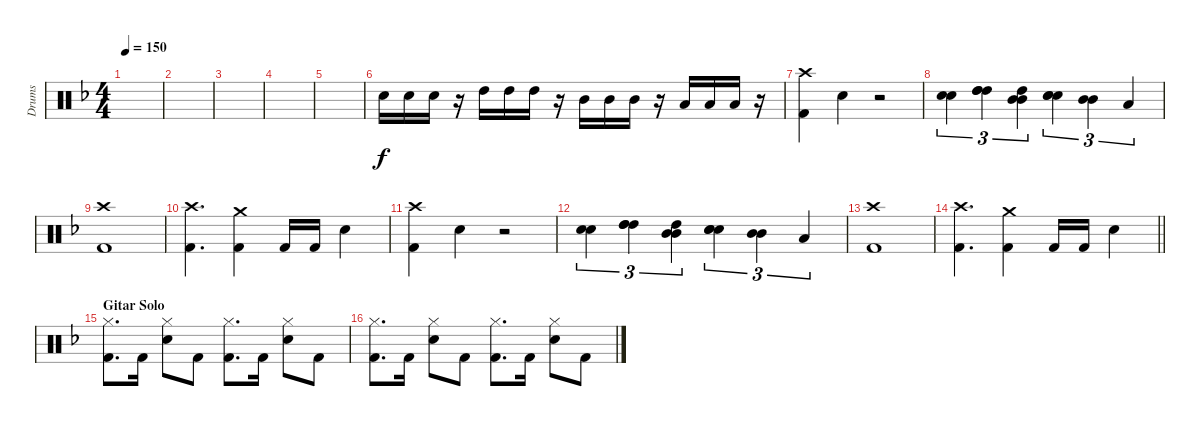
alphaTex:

\track ("Drums" "Drums") {instrument percussion}
\staff {score}
\articulation defaults
\ts (4 4)
\tempo 150
\clef neutral
\ks f
|
|
|
|
|
"Snare (hit) 2".16 "Snare (hit) 2".16 "Snare (hit) 2".16 r.16 "High Tom (hit)".16 "High Tom (hit)".16 "High Tom (hit)".16 r.16 "Mid Tom (hit)".16 "Mid Tom (hit)".16 "Mid Tom (hit)".16 r.16 "Low Tom (hit)".16 "Low Tom (hit)".16 "Low Tom (hit)".16 r.16 |
("Kick (hit) 2" "Crash high (hit)").4 "Snare (hit) 2".4 r.2 |
("Snare (hit) 2" "Snare (hit) 2").4{tu (3 2)} ("High Tom (hit)" "High Tom (hit)" "High Tom (hit)").4{tu (3 2)} ("High Tom (hit)" "Mid Tom (hit)" "Mid Tom (hit)").4{tu (3 2)} ("Snare (hit) 2" "Snare (hit) 2" "Snare (hit) 2").4{tu (3 2)} ("Mid Tom (hit)" "Mid Tom (hit)").4{tu (3 2)} "Low Tom (hit)".4{tu (3 2)} |
("Kick (hit) 2" "Crash high (hit)").1 |
("Kick (hit) 2" "Crash high (hit)").4{d} ("Kick (hit) 2" "Crash medium (hit)").4 "Kick (hit) 2".16 "Kick (hit) 2".16 "Snare (hit) 2".4 |
("Kick (hit) 2" "Crash high (hit)").4 "Snare (hit) 2".4 r.2 |
("Snare (hit) 2" "Snare (hit) 2").4{tu (3 2)} ("High Tom (hit)" "High Tom (hit)" "High Tom (hit)").4{tu (3 2)} ("High Tom (hit)" "Mid Tom (hit)" "Mid Tom (hit)").4{tu (3 2)} ("Snare (hit) 2" "Snare (hit) 2" "Snare (hit) 2").4{tu (3 2)} ("Mid Tom (hit)" "Mid Tom (hit)").4{tu (3 2)} "Low Tom (hit)".4{tu (3 2)} |
("Kick (hit) 2" "Crash high (hit)").1 |
\barLineRight lightlight
("Kick (hit) 2" "Crash high (hit)").4{d} ("Kick (hit) 2" "Crash medium (hit)").4 "Kick (hit) 2".16 "Kick (hit) 2".16 "Snare (hit) 2".4 |
\section ("" "Gitar Solo")
("Kick (hit) 2" "Hi-Hat (closed)").8{d} "Kick (hit) 2".16 ("Snare (hit) 2" "Hi-Hat (closed)").8 "Kick (hit) 2".8 ("Kick (hit) 2" "Hi-Hat (closed)").8{d} "Kick (hit) 2".16 ("Snare (hit) 2" "Hi-Hat (closed)").8 "Kick (hit) 2".8 |
("Kick (hit) 2" "Hi-Hat (closed)").8{d} "Kick (hit) 2".16 ("Snare (hit) 2" "Hi-Hat (closed)").8 "Kick (hit) 2".8 ("Kick (hit) 2" "Hi-Hat (closed)").8{d} "Kick (hit) 2".16 ("Snare (hit) 2" "Hi-Hat (closed)").8 "Kick (hit) 2".8
